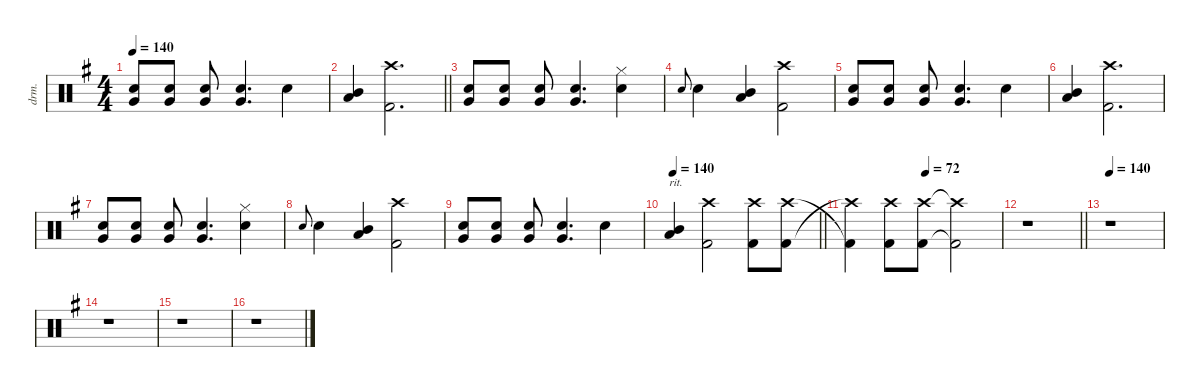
\defaultSystemsLayout 4
\hideDynamics
\bracketExtendMode nobrackets
\otherSystemsTrackNameOrientation horizontal
\track ("Drums" "drm.") {defaultSystemsLayout 4 instrument percussion}
\staff {score}
\articulation defaults
\ts (4 4)
\tempo 140
\clef neutral
\ks eminor
("Very Low Tom (hit)"{acc forcenatural} "Snare (hit) 2"{acc forcenatural}).8{dy f beam Up} ("Very Low Tom (hit)"{acc forcenatural} "Snare (hit) 2"{acc forcenatural}).8{beam Up} ("Very Low Tom (hit)"{acc forcenatural} "Snare (hit) 2"{acc forcenatural}).8{beam Up} ("Very Low Tom (hit)"{acc forcenatural} "Snare (hit) 2"{acc forcenatural}).4{d beam Up} "Snare (hit) 2"{acc forcenatural}.4{beam Down} |
\barLineRight lightlight
("Mid Tom (hit)"{acc forcenatural} "Low Tom (hit)"{acc forcenatural}).4{beam Up} ("Crash high (hit)"{acc forcenatural} "Kick (hit) 2"{acc forcenatural}).2{d beam Down} |
("Very Low Tom (hit)"{acc forcenatural} "Snare (hit) 2"{acc forcenatural}).8{beam Up} ("Very Low Tom (hit)"{acc forcenatural} "Snare (hit) 2"{acc forcenatural}).8{beam Up} ("Very Low Tom (hit)"{acc forcenatural} "Snare (hit) 2"{acc forcenatural}).8{beam Up} ("Very Low Tom (hit)"{acc forcenatural} "Snare (hit) 2"{acc forcenatural}).4{d beam Up} ("Hi-Hat (closed)"{acc forcenatural} "Snare (hit) 2"{acc forcenatural}).4{beam Down} |
"Snare (hit) 2"{acc forcenatural}.8{gr onbeat dy fff beam Up} "Snare (hit) 2"{acc forcenatural}.4{dy ff beam Down} ("Mid Tom (hit)"{acc forcenatural} "Low Tom (hit)"{acc forcenatural}).4{dy f beam Up} ("Crash high (hit)"{acc forcenatural} "Kick (hit) 2"{acc forcenatural}).2{beam Down} |
("Very Low Tom (hit)"{acc forcenatural} "Snare (hit) 2"{acc forcenatural}).8{beam Up} ("Very Low Tom (hit)"{acc forcenatural} "Snare (hit) 2"{acc forcenatural}).8{beam Up} ("Very Low Tom (hit)"{acc forcenatural} "Snare (hit) 2"{acc forcenatural}).8{beam Up} ("Very Low Tom (hit)"{acc forcenatural} "Snare (hit) 2"{acc forcenatural}).4{d beam Up} "Snare (hit) 2"{acc forcenatural}.4{beam Down} |
("Mid Tom (hit)"{acc forcenatural} "Low Tom (hit)"{acc forcenatural}).4{beam Up} ("Crash high (hit)"{acc forcenatural} "Kick (hit) 2"{acc forcenatural}).2{d beam Down} |
("Very Low Tom (hit)"{acc forcenatural} "Snare (hit) 2"{acc forcenatural}).8{beam Up} ("Very Low Tom (hit)"{acc forcenatural} "Snare (hit) 2"{acc forcenatural}).8{beam Up} ("Very Low Tom (hit)"{acc forcenatural} "Snare (hit) 2"{acc forcenatural}).8{beam Up} ("Very Low Tom (hit)"{acc forcenatural} "Snare (hit) 2"{acc forcenatural}).4{d beam Up} ("Hi-Hat (closed)"{acc forcenatural} "Snare (hit) 2"{acc forcenatural}).4{beam Down} |
"Snare (hit) 2"{acc forcenatural}.8{gr onbeat dy fff beam Up} "Snare (hit) 2"{acc forcenatural}.4{dy ff beam Down} ("Mid Tom (hit)"{acc forcenatural} "Low Tom (hit)"{acc forcenatural}).4{dy f beam Up} ("Crash high (hit)"{acc forcenatural} "Kick (hit) 2"{acc forcenatural}).2{beam Down} |
("Very Low Tom (hit)"{acc forcenatural} "Snare (hit) 2"{acc forcenatural}).8{beam Up} ("Very Low Tom (hit)"{acc forcenatural} "Snare (hit) 2"{acc forcenatural}).8{beam Up} ("Very Low Tom (hit)"{acc forcenatural} "Snare (hit) 2"{acc forcenatural}).8{beam Up} ("Very Low Tom (hit)"{acc forcenatural} "Snare (hit) 2"{acc forcenatural}).4{d beam Up} "Snare (hit) 2"{acc forcenatural}.4{beam Down} |
\tempo 140
\barLineRight lightlight
("Mid Tom (hit)"{acc forcenatural} "Low Tom (hit)"{acc forcenatural}).4{txt "rit." beam Up} ("Crash high (hit)"{acc forcenatural} "Kick (hit) 2"{acc forcenatural}).2{beam Down} ("Crash high (hit)"{acc forcenatural} "Kick (hit) 2"{acc forcenatural}).8{beam Down} ("Crash high (hit)"{acc forcenatural} "Kick (hit) 2"{acc forcenatural}).8{beam Down} |
\tempo (72 0.5)
("Kick (hit) 2"{t acc forcenatural} "Crash high (hit)"{t acc forcenatural}).4{dy mf beam Down} ("Crash high (hit)"{acc forcenatural} "Kick (hit) 2"{acc forcenatural}).8{dy f beam Down} ("Crash high (hit)"{acc forcenatural} "Kick (hit) 2"{acc forcenatural}).8{beam Down} ("Crash high (hit)"{t acc forcenatural} "Kick (hit) 2"{t acc forcenatural}).2{beam Down} |
\barLineRight lightlight
r.1{beam Down} |
\tempo 140
r.1{beam Down} |
r.1{beam Down} |
r.1{beam Down} |
r.1{beam Down}
